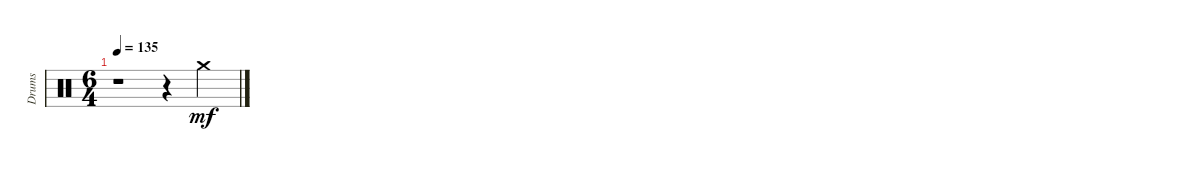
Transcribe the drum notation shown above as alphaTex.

\track ("Drums" "Drums") {instrument percussion}
\staff {score}
\articulation defaults
\ts (6 4)
\tempo 135
\clef neutral
\ks c
r.1{dy f} r.4 "Crash medium (hit)".4{dy mf}
